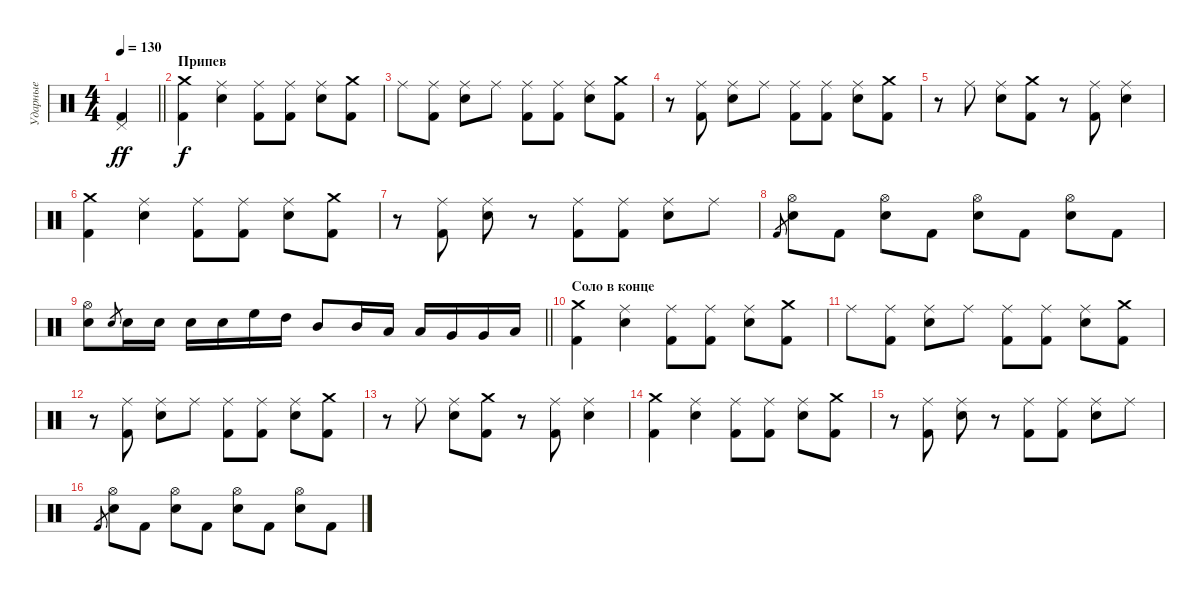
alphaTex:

\track ("Ударные" "Ударные") {instrument percussion}
\staff {score}
\articulation defaults
\ts (4 4)
\tempo 130
\clef neutral
\barLineRight lightlight
\ks c
("Kick (hit) 2" "Pedal Hi-Hat (hit)").4{dy ff} |
\section ("" "Припев")
("Kick (hit) 2" "Crash medium (hit)").4{dy f} ("Electric Snare (hit)" "Ride (middle)").4 ("Kick (hit) 2" "Ride (middle)").8 ("Kick (hit) 2" "Ride (middle)").8 ("Electric Snare (hit)" "Ride (middle)").8 ("Kick (hit) 2" "Crash medium (hit)").8 |
"Ride (middle)".8 ("Kick (hit) 2" "Ride (middle)").8 ("Electric Snare (hit)" "Ride (middle)").8 "Ride (middle)".8 ("Kick (hit) 2" "Ride (middle)").8 ("Kick (hit) 2" "Ride (middle)").8 ("Electric Snare (hit)" "Ride (middle)").8 ("Kick (hit) 2" "Crash medium (hit)").8 |
r.8 ("Kick (hit) 2" "Ride (middle)").8 ("Electric Snare (hit)" "Ride (middle)").8 "Ride (middle)".8 ("Kick (hit) 2" "Ride (middle)").8 ("Kick (hit) 2" "Ride (middle)").8 ("Electric Snare (hit)" "Ride (middle)").8 ("Kick (hit) 2" "Crash medium (hit)").8 |
r.8 "Ride (middle)".8 ("Electric Snare (hit)" "Ride (middle)").8 ("Kick (hit) 2" "Crash medium (hit)").8 r.8 ("Kick (hit) 2" "Ride (middle)").8 ("Electric Snare (hit)" "Ride (middle)").4 |
("Kick (hit) 2" "Crash medium (hit)").4 ("Electric Snare (hit)" "Ride (middle)").4 ("Kick (hit) 2" "Ride (middle)").8 ("Kick (hit) 2" "Ride (middle)").8 ("Electric Snare (hit)" "Ride (middle)").8 ("Kick (hit) 2" "Crash medium (hit)").8 |
r.8 ("Kick (hit) 2" "Ride (middle)").8 ("Electric Snare (hit)" "Ride (middle)").8 r.8 ("Kick (hit) 2" "Ride (middle)").8 ("Kick (hit) 2" "Ride (middle)").8 ("Electric Snare (hit)" "Ride (middle)").8 "Ride (middle)".8 |
"Kick (hit) 2".8{gr} ("Electric Snare (hit)" "Hi-Hat (open)").8 "Kick (hit) 2".8 ("Electric Snare (hit)" "Hi-Hat (open)").8 "Kick (hit) 2".8 ("Electric Snare (hit)" "Hi-Hat (open)").8 "Kick (hit) 2".8 ("Electric Snare (hit)" "Hi-Hat (open)").8 "Kick (hit) 2".8 |
\barLineRight lightlight
("Electric Snare (hit)" "Hi-Hat (open)").8 "Electric Snare (hit)".8{gr} "Electric Snare (hit)".16 "Electric Snare (hit)".16 "Electric Snare (hit)".16 "Electric Snare (hit)".16 "High Floor Tom (hit)".16 "High Tom (hit)".16 "Mid Tom (hit)".8 "Mid Tom (hit)".16 "Low Tom (hit)".16 "Low Tom (hit)".16 "Very Low Tom (hit)".16 "Very Low Tom (hit)".16 "Low Floor Tom (hit)".16 |
\section ("" "Соло в конце")
("Kick (hit) 2" "Crash medium (hit)").4 ("Electric Snare (hit)" "Ride (middle)").4 ("Kick (hit) 2" "Ride (middle)").8 ("Kick (hit) 2" "Ride (middle)").8 ("Electric Snare (hit)" "Ride (middle)").8 ("Kick (hit) 2" "Crash medium (hit)").8 |
"Ride (middle)".8 ("Kick (hit) 2" "Ride (middle)").8 ("Electric Snare (hit)" "Ride (middle)").8 "Ride (middle)".8 ("Kick (hit) 2" "Ride (middle)").8 ("Kick (hit) 2" "Ride (middle)").8 ("Electric Snare (hit)" "Ride (middle)").8 ("Kick (hit) 2" "Crash medium (hit)").8 |
r.8 ("Kick (hit) 2" "Ride (middle)").8 ("Electric Snare (hit)" "Ride (middle)").8 "Ride (middle)".8 ("Kick (hit) 2" "Ride (middle)").8 ("Kick (hit) 2" "Ride (middle)").8 ("Electric Snare (hit)" "Ride (middle)").8 ("Kick (hit) 2" "Crash medium (hit)").8 |
r.8 "Ride (middle)".8 ("Electric Snare (hit)" "Ride (middle)").8 ("Kick (hit) 2" "Crash medium (hit)").8 r.8 ("Kick (hit) 2" "Ride (middle)").8 ("Electric Snare (hit)" "Ride (middle)").4 |
("Kick (hit) 2" "Crash medium (hit)").4 ("Electric Snare (hit)" "Ride (middle)").4 ("Kick (hit) 2" "Ride (middle)").8 ("Kick (hit) 2" "Ride (middle)").8 ("Electric Snare (hit)" "Ride (middle)").8 ("Kick (hit) 2" "Crash medium (hit)").8 |
r.8 ("Kick (hit) 2" "Ride (middle)").8 ("Electric Snare (hit)" "Ride (middle)").8 r.8 ("Kick (hit) 2" "Ride (middle)").8 ("Kick (hit) 2" "Ride (middle)").8 ("Electric Snare (hit)" "Ride (middle)").8 "Ride (middle)".8 |
"Kick (hit) 2".8{gr} ("Electric Snare (hit)" "Hi-Hat (open)").8 "Kick (hit) 2".8 ("Electric Snare (hit)" "Hi-Hat (open)").8 "Kick (hit) 2".8 ("Electric Snare (hit)" "Hi-Hat (open)").8 "Kick (hit) 2".8 ("Electric Snare (hit)" "Hi-Hat (open)").8 "Kick (hit) 2".8
